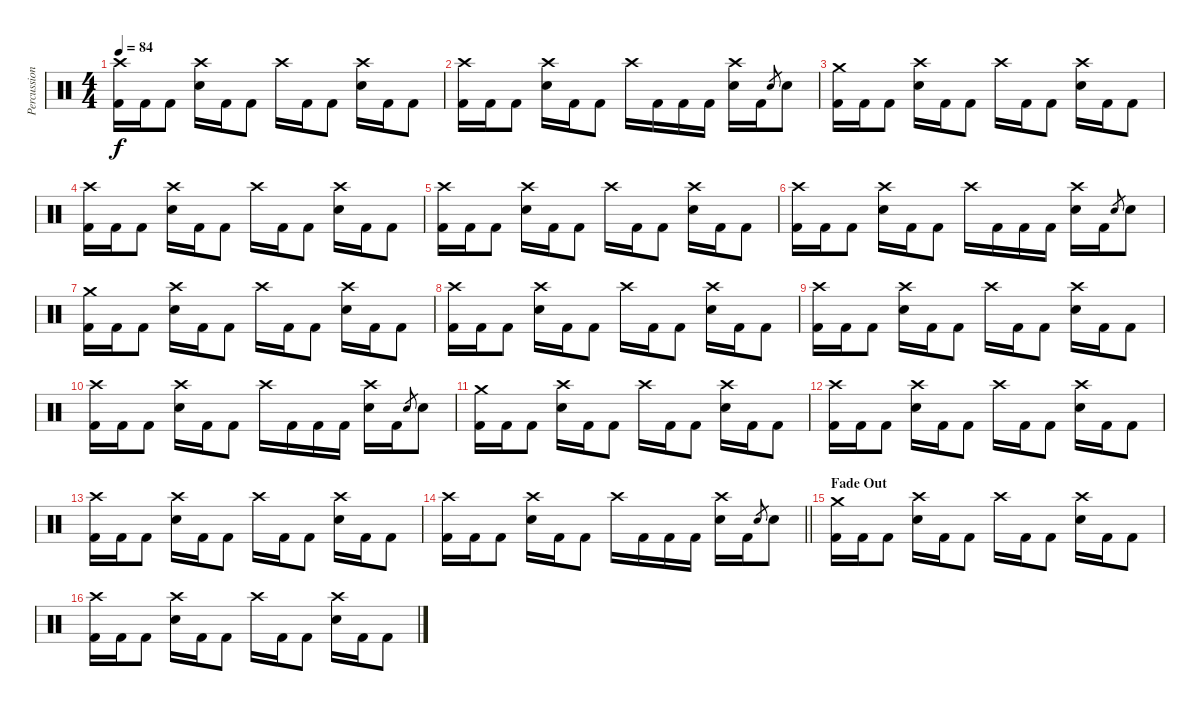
\track ("Percussion" "Percussion") {instrument percussion}
\staff {score}
\articulation defaults
\ts (4 4)
\tempo 84
\clef neutral
\ks c
("Crash high (hit)" "Kick (hit) 2").16{dy f} "Kick (hit) 2".16 "Kick (hit) 2".8 ("Crash high (hit)" "Electric Snare (hit)").16 "Kick (hit) 2".16 "Kick (hit) 2".8 "Crash high (hit)".16 "Kick (hit) 2".16 "Kick (hit) 2".8 ("Crash high (hit)" "Electric Snare (hit)").16 "Kick (hit) 2".16 "Kick (hit) 2".8 |
("Crash high (hit)" "Kick (hit) 2").16 "Kick (hit) 2".16 "Kick (hit) 2".8 ("Crash high (hit)" "Electric Snare (hit)").16 "Kick (hit) 2".16 "Kick (hit) 2".8 "Crash high (hit)".16 "Kick (hit) 2".16 "Kick (hit) 2".16 "Kick (hit) 2".16 ("Crash high (hit)" "Electric Snare (hit)").16 "Kick (hit) 2".16 "Electric Snare (hit)".8{gr} "Electric Snare (hit)".8 |
("Crash medium (hit)" "Kick (hit) 2").16 "Kick (hit) 2".16 "Kick (hit) 2".8 ("Crash high (hit)" "Electric Snare (hit)").16 "Kick (hit) 2".16 "Kick (hit) 2".8 "Crash high (hit)".16 "Kick (hit) 2".16 "Kick (hit) 2".8 ("Crash high (hit)" "Electric Snare (hit)").16 "Kick (hit) 2".16 "Kick (hit) 2".8 |
("Crash high (hit)" "Kick (hit) 2").16 "Kick (hit) 2".16 "Kick (hit) 2".8 ("Crash high (hit)" "Electric Snare (hit)").16 "Kick (hit) 2".16 "Kick (hit) 2".8 "Crash high (hit)".16 "Kick (hit) 2".16 "Kick (hit) 2".8 ("Crash high (hit)" "Electric Snare (hit)").16 "Kick (hit) 2".16 "Kick (hit) 2".8 |
("Crash high (hit)" "Kick (hit) 2").16 "Kick (hit) 2".16 "Kick (hit) 2".8 ("Crash high (hit)" "Electric Snare (hit)").16 "Kick (hit) 2".16 "Kick (hit) 2".8 "Crash high (hit)".16 "Kick (hit) 2".16 "Kick (hit) 2".8 ("Crash high (hit)" "Electric Snare (hit)").16 "Kick (hit) 2".16 "Kick (hit) 2".8 |
("Crash high (hit)" "Kick (hit) 2").16 "Kick (hit) 2".16 "Kick (hit) 2".8 ("Crash high (hit)" "Electric Snare (hit)").16 "Kick (hit) 2".16 "Kick (hit) 2".8 "Crash high (hit)".16 "Kick (hit) 2".16 "Kick (hit) 2".16 "Kick (hit) 2".16 ("Crash high (hit)" "Electric Snare (hit)").16 "Kick (hit) 2".16 "Electric Snare (hit)".8{gr} "Electric Snare (hit)".8 |
("Crash medium (hit)" "Kick (hit) 2").16 "Kick (hit) 2".16 "Kick (hit) 2".8 ("Crash high (hit)" "Electric Snare (hit)").16 "Kick (hit) 2".16 "Kick (hit) 2".8 "Crash high (hit)".16 "Kick (hit) 2".16 "Kick (hit) 2".8 ("Crash high (hit)" "Electric Snare (hit)").16 "Kick (hit) 2".16 "Kick (hit) 2".8 |
("Crash high (hit)" "Kick (hit) 2").16 "Kick (hit) 2".16 "Kick (hit) 2".8 ("Crash high (hit)" "Electric Snare (hit)").16 "Kick (hit) 2".16 "Kick (hit) 2".8 "Crash high (hit)".16 "Kick (hit) 2".16 "Kick (hit) 2".8 ("Crash high (hit)" "Electric Snare (hit)").16 "Kick (hit) 2".16 "Kick (hit) 2".8 |
("Crash high (hit)" "Kick (hit) 2").16 "Kick (hit) 2".16 "Kick (hit) 2".8 ("Crash high (hit)" "Electric Snare (hit)").16 "Kick (hit) 2".16 "Kick (hit) 2".8 "Crash high (hit)".16 "Kick (hit) 2".16 "Kick (hit) 2".8 ("Crash high (hit)" "Electric Snare (hit)").16 "Kick (hit) 2".16 "Kick (hit) 2".8 |
("Crash high (hit)" "Kick (hit) 2").16 "Kick (hit) 2".16 "Kick (hit) 2".8 ("Crash high (hit)" "Electric Snare (hit)").16 "Kick (hit) 2".16 "Kick (hit) 2".8 "Crash high (hit)".16 "Kick (hit) 2".16 "Kick (hit) 2".16 "Kick (hit) 2".16 ("Crash high (hit)" "Electric Snare (hit)").16 "Kick (hit) 2".16 "Electric Snare (hit)".8{gr} "Electric Snare (hit)".8 |
("Crash medium (hit)" "Kick (hit) 2").16 "Kick (hit) 2".16 "Kick (hit) 2".8 ("Crash high (hit)" "Electric Snare (hit)").16 "Kick (hit) 2".16 "Kick (hit) 2".8 "Crash high (hit)".16 "Kick (hit) 2".16 "Kick (hit) 2".8 ("Crash high (hit)" "Electric Snare (hit)").16 "Kick (hit) 2".16 "Kick (hit) 2".8 |
("Crash high (hit)" "Kick (hit) 2").16 "Kick (hit) 2".16 "Kick (hit) 2".8 ("Crash high (hit)" "Electric Snare (hit)").16 "Kick (hit) 2".16 "Kick (hit) 2".8 "Crash high (hit)".16 "Kick (hit) 2".16 "Kick (hit) 2".8 ("Crash high (hit)" "Electric Snare (hit)").16 "Kick (hit) 2".16 "Kick (hit) 2".8 |
("Crash high (hit)" "Kick (hit) 2").16 "Kick (hit) 2".16 "Kick (hit) 2".8 ("Crash high (hit)" "Electric Snare (hit)").16 "Kick (hit) 2".16 "Kick (hit) 2".8 "Crash high (hit)".16 "Kick (hit) 2".16 "Kick (hit) 2".8 ("Crash high (hit)" "Electric Snare (hit)").16 "Kick (hit) 2".16 "Kick (hit) 2".8 |
\barLineRight lightlight
("Crash high (hit)" "Kick (hit) 2").16 "Kick (hit) 2".16 "Kick (hit) 2".8 ("Crash high (hit)" "Electric Snare (hit)").16 "Kick (hit) 2".16 "Kick (hit) 2".8 "Crash high (hit)".16 "Kick (hit) 2".16 "Kick (hit) 2".16 "Kick (hit) 2".16 ("Crash high (hit)" "Electric Snare (hit)").16 "Kick (hit) 2".16 "Electric Snare (hit)".8{gr} "Electric Snare (hit)".8 |
\section ("" "Fade Out")
("Crash medium (hit)" "Kick (hit) 2").16{volume 10} "Kick (hit) 2".16 "Kick (hit) 2".8 ("Crash high (hit)" "Electric Snare (hit)").16 "Kick (hit) 2".16 "Kick (hit) 2".8 "Crash high (hit)".16 "Kick (hit) 2".16 "Kick (hit) 2".8 ("Crash high (hit)" "Electric Snare (hit)").16 "Kick (hit) 2".16 "Kick (hit) 2".8 |
("Crash high (hit)" "Kick (hit) 2").16 "Kick (hit) 2".16 "Kick (hit) 2".8 ("Crash high (hit)" "Electric Snare (hit)").16 "Kick (hit) 2".16 "Kick (hit) 2".8 "Crash high (hit)".16 "Kick (hit) 2".16 "Kick (hit) 2".8 ("Crash high (hit)" "Electric Snare (hit)").16 "Kick (hit) 2".16 "Kick (hit) 2".8
